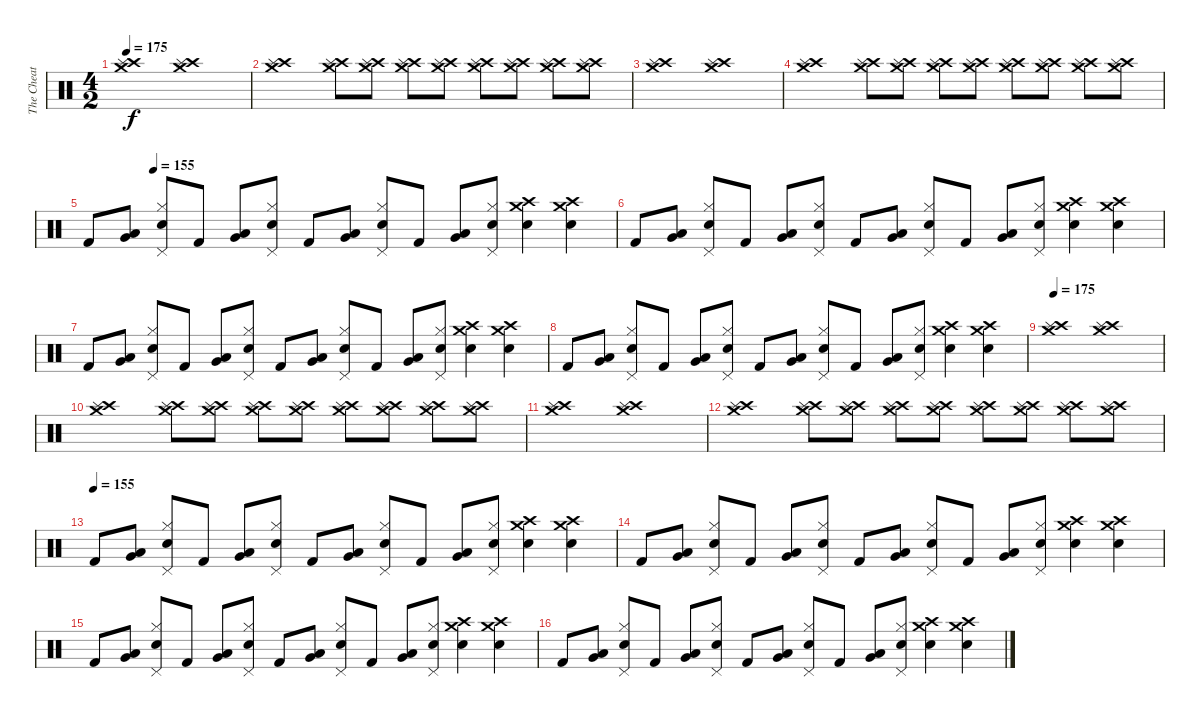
\track ("The Cheat Keyboard Beat" "The Cheat ") {instrument percussion}
\staff {score}
\articulation defaults
\ts (4 2)
\tempo 175
\clef neutral
\ks c
("Crash high (hit)" "Splash (hit)" "Crash medium (hit)").1{dy f} ("Crash high (hit)" "Splash (hit)" "Crash medium (hit)").1 |
("Crash high (hit)" "Splash (hit)" "Crash medium (hit)").1 ("Crash high (hit)" "Splash (hit)" "Crash medium (hit)").8 ("Crash high (hit)" "Splash (hit)" "Crash medium (hit)").8 ("Crash high (hit)" "Splash (hit)" "Crash medium (hit)").8 ("Crash high (hit)" "Splash (hit)" "Crash medium (hit)").8 ("Crash high (hit)" "Splash (hit)" "Crash medium (hit)").8 ("Crash high (hit)" "Splash (hit)" "Crash medium (hit)").8 ("Crash high (hit)" "Splash (hit)" "Crash medium (hit)").8 ("Crash high (hit)" "Splash (hit)" "Crash medium (hit)").8 |
("Crash high (hit)" "Splash (hit)" "Crash medium (hit)").1 ("Crash high (hit)" "Splash (hit)" "Crash medium (hit)").1 |
("Crash high (hit)" "Splash (hit)" "Crash medium (hit)").1 ("Crash high (hit)" "Splash (hit)" "Crash medium (hit)").8 ("Crash high (hit)" "Splash (hit)" "Crash medium (hit)").8 ("Crash high (hit)" "Splash (hit)" "Crash medium (hit)").8 ("Crash high (hit)" "Splash (hit)" "Crash medium (hit)").8 ("Crash high (hit)" "Splash (hit)" "Crash medium (hit)").8 ("Crash high (hit)" "Splash (hit)" "Crash medium (hit)").8 ("Crash high (hit)" "Splash (hit)" "Crash medium (hit)").8 ("Crash high (hit)" "Splash (hit)" "Crash medium (hit)").8 |
\tempo (155 0.125)
"Kick (hit) 2".8 ("Low Floor Tom (hit)" "Very Low Tom (hit)").8 ("Electric Snare (hit)" "Hi-Hat (closed)" "Pedal Hi-Hat (hit)").8 "Kick (hit) 2".8 ("Low Floor Tom (hit)" "Very Low Tom (hit)").8 ("Electric Snare (hit)" "Hi-Hat (closed)" "Pedal Hi-Hat (hit)").8 "Kick (hit) 2".8 ("Low Floor Tom (hit)" "Very Low Tom (hit)").8 ("Electric Snare (hit)" "Hi-Hat (closed)" "Pedal Hi-Hat (hit)").8 "Kick (hit) 2".8 ("Low Floor Tom (hit)" "Very Low Tom (hit)").8 ("Electric Snare (hit)" "Hi-Hat (closed)" "Pedal Hi-Hat (hit)").8 ("Crash high (hit)" "Electric Snare (hit)" "Crash medium (hit)").4 ("Crash high (hit)" "Electric Snare (hit)" "Crash medium (hit)").4 |
"Kick (hit) 2".8 ("Low Floor Tom (hit)" "Very Low Tom (hit)").8 ("Electric Snare (hit)" "Hi-Hat (closed)" "Pedal Hi-Hat (hit)").8 "Kick (hit) 2".8 ("Low Floor Tom (hit)" "Very Low Tom (hit)").8 ("Electric Snare (hit)" "Hi-Hat (closed)" "Pedal Hi-Hat (hit)").8 "Kick (hit) 2".8 ("Low Floor Tom (hit)" "Very Low Tom (hit)").8 ("Electric Snare (hit)" "Hi-Hat (closed)" "Pedal Hi-Hat (hit)").8 "Kick (hit) 2".8 ("Low Floor Tom (hit)" "Very Low Tom (hit)").8 ("Electric Snare (hit)" "Hi-Hat (closed)" "Pedal Hi-Hat (hit)").8 ("Crash high (hit)" "Electric Snare (hit)" "Crash medium (hit)").4 ("Crash high (hit)" "Electric Snare (hit)" "Crash medium (hit)").4 |
"Kick (hit) 2".8 ("Low Floor Tom (hit)" "Very Low Tom (hit)").8 ("Electric Snare (hit)" "Hi-Hat (closed)" "Pedal Hi-Hat (hit)").8 "Kick (hit) 2".8 ("Low Floor Tom (hit)" "Very Low Tom (hit)").8 ("Electric Snare (hit)" "Hi-Hat (closed)" "Pedal Hi-Hat (hit)").8 "Kick (hit) 2".8 ("Low Floor Tom (hit)" "Very Low Tom (hit)").8 ("Electric Snare (hit)" "Hi-Hat (closed)" "Pedal Hi-Hat (hit)").8 "Kick (hit) 2".8 ("Low Floor Tom (hit)" "Very Low Tom (hit)").8 ("Electric Snare (hit)" "Hi-Hat (closed)" "Pedal Hi-Hat (hit)").8 ("Crash high (hit)" "Electric Snare (hit)" "Crash medium (hit)").4 ("Crash high (hit)" "Electric Snare (hit)" "Crash medium (hit)").4 |
"Kick (hit) 2".8 ("Low Floor Tom (hit)" "Very Low Tom (hit)").8 ("Electric Snare (hit)" "Hi-Hat (closed)" "Pedal Hi-Hat (hit)").8 "Kick (hit) 2".8 ("Low Floor Tom (hit)" "Very Low Tom (hit)").8 ("Electric Snare (hit)" "Hi-Hat (closed)" "Pedal Hi-Hat (hit)").8 "Kick (hit) 2".8 ("Low Floor Tom (hit)" "Very Low Tom (hit)").8 ("Electric Snare (hit)" "Hi-Hat (closed)" "Pedal Hi-Hat (hit)").8 "Kick (hit) 2".8 ("Low Floor Tom (hit)" "Very Low Tom (hit)").8 ("Electric Snare (hit)" "Hi-Hat (closed)" "Pedal Hi-Hat (hit)").8 ("Crash high (hit)" "Electric Snare (hit)" "Crash medium (hit)").4 ("Crash high (hit)" "Electric Snare (hit)" "Crash medium (hit)").4 |
\tempo 175
("Crash high (hit)" "Splash (hit)" "Crash medium (hit)").1 ("Crash high (hit)" "Splash (hit)" "Crash medium (hit)").1 |
("Crash high (hit)" "Splash (hit)" "Crash medium (hit)").1 ("Crash high (hit)" "Splash (hit)" "Crash medium (hit)").8 ("Crash high (hit)" "Splash (hit)" "Crash medium (hit)").8 ("Crash high (hit)" "Splash (hit)" "Crash medium (hit)").8 ("Crash high (hit)" "Splash (hit)" "Crash medium (hit)").8 ("Crash high (hit)" "Splash (hit)" "Crash medium (hit)").8 ("Crash high (hit)" "Splash (hit)" "Crash medium (hit)").8 ("Crash high (hit)" "Splash (hit)" "Crash medium (hit)").8 ("Crash high (hit)" "Splash (hit)" "Crash medium (hit)").8 |
("Crash high (hit)" "Splash (hit)" "Crash medium (hit)").1 ("Crash high (hit)" "Splash (hit)" "Crash medium (hit)").1 |
("Crash high (hit)" "Splash (hit)" "Crash medium (hit)").1 ("Crash high (hit)" "Splash (hit)" "Crash medium (hit)").8 ("Crash high (hit)" "Splash (hit)" "Crash medium (hit)").8 ("Crash high (hit)" "Splash (hit)" "Crash medium (hit)").8 ("Crash high (hit)" "Splash (hit)" "Crash medium (hit)").8 ("Crash high (hit)" "Splash (hit)" "Crash medium (hit)").8 ("Crash high (hit)" "Splash (hit)" "Crash medium (hit)").8 ("Crash high (hit)" "Splash (hit)" "Crash medium (hit)").8 ("Crash high (hit)" "Splash (hit)" "Crash medium (hit)").8 |
\tempo (155)
"Kick (hit) 2".8 ("Low Floor Tom (hit)" "Very Low Tom (hit)").8 ("Electric Snare (hit)" "Hi-Hat (closed)" "Pedal Hi-Hat (hit)").8 "Kick (hit) 2".8 ("Low Floor Tom (hit)" "Very Low Tom (hit)").8 ("Electric Snare (hit)" "Hi-Hat (closed)" "Pedal Hi-Hat (hit)").8 "Kick (hit) 2".8 ("Low Floor Tom (hit)" "Very Low Tom (hit)").8 ("Electric Snare (hit)" "Hi-Hat (closed)" "Pedal Hi-Hat (hit)").8 "Kick (hit) 2".8 ("Low Floor Tom (hit)" "Very Low Tom (hit)").8 ("Electric Snare (hit)" "Hi-Hat (closed)" "Pedal Hi-Hat (hit)").8 ("Crash high (hit)" "Electric Snare (hit)" "Crash medium (hit)").4 ("Crash high (hit)" "Electric Snare (hit)" "Crash medium (hit)").4 |
"Kick (hit) 2".8 ("Low Floor Tom (hit)" "Very Low Tom (hit)").8 ("Electric Snare (hit)" "Hi-Hat (closed)" "Pedal Hi-Hat (hit)").8 "Kick (hit) 2".8 ("Low Floor Tom (hit)" "Very Low Tom (hit)").8 ("Electric Snare (hit)" "Hi-Hat (closed)" "Pedal Hi-Hat (hit)").8 "Kick (hit) 2".8 ("Low Floor Tom (hit)" "Very Low Tom (hit)").8 ("Electric Snare (hit)" "Hi-Hat (closed)" "Pedal Hi-Hat (hit)").8 "Kick (hit) 2".8 ("Low Floor Tom (hit)" "Very Low Tom (hit)").8 ("Electric Snare (hit)" "Hi-Hat (closed)" "Pedal Hi-Hat (hit)").8 ("Crash high (hit)" "Electric Snare (hit)" "Crash medium (hit)").4 ("Crash high (hit)" "Electric Snare (hit)" "Crash medium (hit)").4 |
"Kick (hit) 2".8 ("Low Floor Tom (hit)" "Very Low Tom (hit)").8 ("Electric Snare (hit)" "Hi-Hat (closed)" "Pedal Hi-Hat (hit)").8 "Kick (hit) 2".8 ("Low Floor Tom (hit)" "Very Low Tom (hit)").8 ("Electric Snare (hit)" "Hi-Hat (closed)" "Pedal Hi-Hat (hit)").8 "Kick (hit) 2".8 ("Low Floor Tom (hit)" "Very Low Tom (hit)").8 ("Electric Snare (hit)" "Hi-Hat (closed)" "Pedal Hi-Hat (hit)").8 "Kick (hit) 2".8 ("Low Floor Tom (hit)" "Very Low Tom (hit)").8 ("Electric Snare (hit)" "Hi-Hat (closed)" "Pedal Hi-Hat (hit)").8 ("Crash high (hit)" "Electric Snare (hit)" "Crash medium (hit)").4 ("Crash high (hit)" "Electric Snare (hit)" "Crash medium (hit)").4 |
"Kick (hit) 2".8 ("Low Floor Tom (hit)" "Very Low Tom (hit)").8 ("Electric Snare (hit)" "Hi-Hat (closed)" "Pedal Hi-Hat (hit)").8 "Kick (hit) 2".8 ("Low Floor Tom (hit)" "Very Low Tom (hit)").8 ("Electric Snare (hit)" "Hi-Hat (closed)" "Pedal Hi-Hat (hit)").8 "Kick (hit) 2".8 ("Low Floor Tom (hit)" "Very Low Tom (hit)").8 ("Electric Snare (hit)" "Hi-Hat (closed)" "Pedal Hi-Hat (hit)").8 "Kick (hit) 2".8 ("Low Floor Tom (hit)" "Very Low Tom (hit)").8 ("Electric Snare (hit)" "Hi-Hat (closed)" "Pedal Hi-Hat (hit)").8 ("Crash high (hit)" "Electric Snare (hit)" "Crash medium (hit)").4 ("Crash high (hit)" "Electric Snare (hit)" "Crash medium (hit)").4
